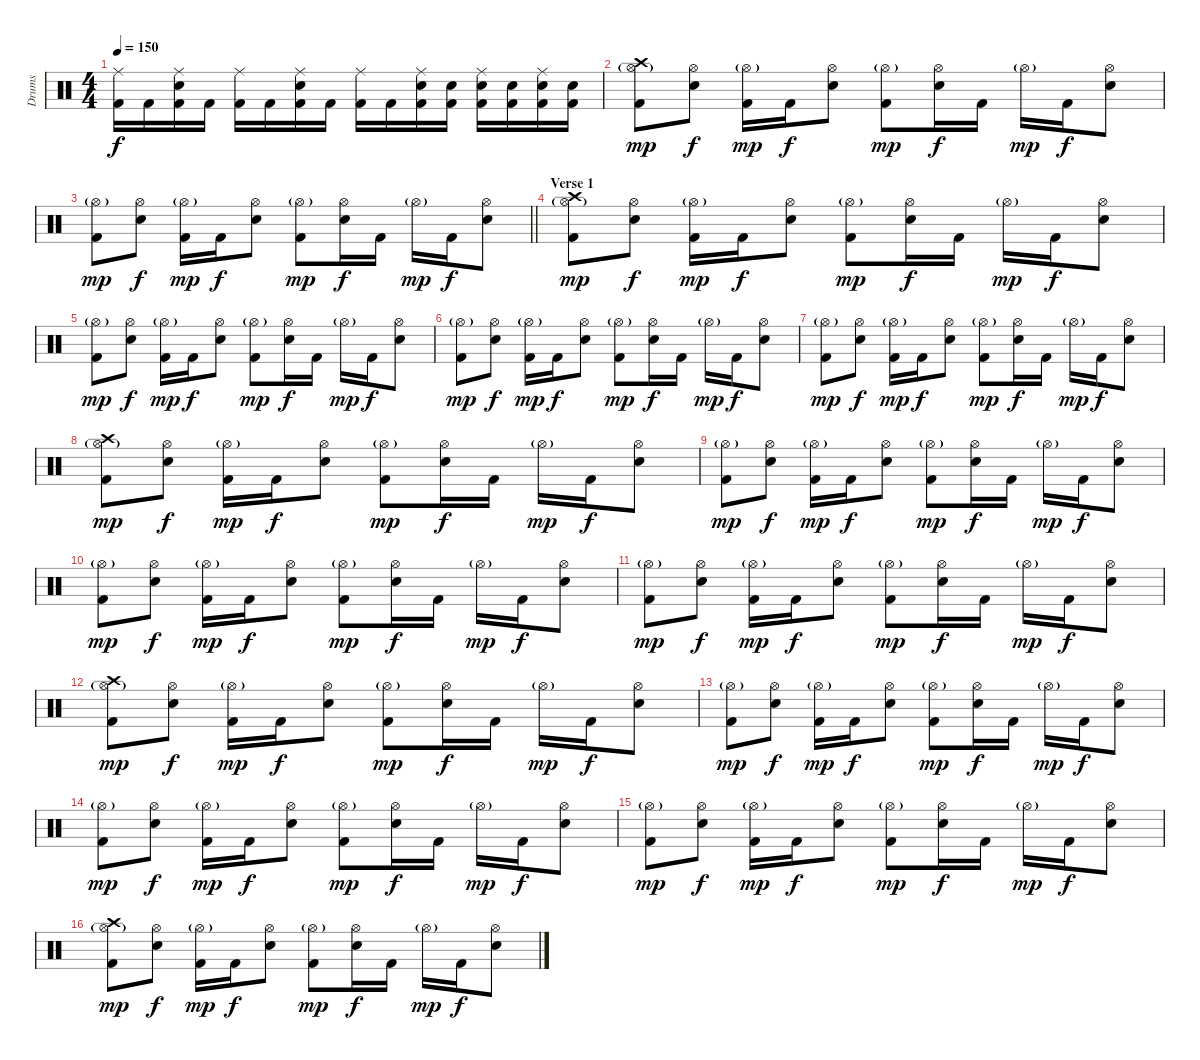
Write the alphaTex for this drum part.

\track ("Drums" "Drums") {instrument percussion}
\staff {score}
\articulation defaults
\ts (4 4)
\tempo 150
\clef neutral
\ks c
("Ride (middle)" "Kick (hit) 2").16{dy f} "Kick (hit) 2".16 ("Ride (middle)" "Snare (hit) 2" "Kick (hit) 2").16 "Kick (hit) 2".16 ("Ride (middle)" "Kick (hit) 2").16 "Kick (hit) 2".16 ("Ride (middle)" "Snare (hit) 2" "Kick (hit) 2").16 "Kick (hit) 2".16 ("Ride (middle)" "Kick (hit) 2").16 "Kick (hit) 2".16 ("Ride (middle)" "Snare (hit) 2" "Kick (hit) 2").16 ("Snare (hit) 2" "Kick (hit) 2").16 ("Ride (middle)" "Snare (hit) 2" "Kick (hit) 2").16 ("Snare (hit) 2" "Kick (hit) 2").16 ("Ride (middle)" "Snare (hit) 2" "Kick (hit) 2").16 ("Snare (hit) 2" "Kick (hit) 2").16 |
("Crash high (hit)" "Hi-Hat (open)"{g} "Kick (hit) 2").8{dy mp} ("Hi-Hat (open)" "Snare (hit) 2").8{dy f} ("Hi-Hat (open)"{g} "Kick (hit) 2").16{dy mp} "Kick (hit) 2".16{dy f} ("Hi-Hat (open)" "Snare (hit) 2").8 ("Hi-Hat (open)"{g} "Kick (hit) 2").8{dy mp} ("Hi-Hat (open)" "Snare (hit) 2").16{dy f} "Kick (hit) 2".16 "Hi-Hat (open)"{g}.16{dy mp} "Kick (hit) 2".16{dy f} ("Hi-Hat (open)" "Snare (hit) 2").8 |
\barLineRight lightlight
("Hi-Hat (open)"{g} "Kick (hit) 2").8{dy mp} ("Hi-Hat (open)" "Snare (hit) 2").8{dy f} ("Hi-Hat (open)"{g} "Kick (hit) 2").16{dy mp} "Kick (hit) 2".16{dy f} ("Hi-Hat (open)" "Snare (hit) 2").8 ("Hi-Hat (open)"{g} "Kick (hit) 2").8{dy mp} ("Hi-Hat (open)" "Snare (hit) 2").16{dy f} "Kick (hit) 2".16 "Hi-Hat (open)"{g}.16{dy mp} "Kick (hit) 2".16{dy f} ("Hi-Hat (open)" "Snare (hit) 2").8 |
\section ("" "Verse 1")
("Crash high (hit)" "Hi-Hat (open)"{g} "Kick (hit) 2").8{dy mp} ("Hi-Hat (open)" "Snare (hit) 2").8{dy f} ("Hi-Hat (open)"{g} "Kick (hit) 2").16{dy mp} "Kick (hit) 2".16{dy f} ("Hi-Hat (open)" "Snare (hit) 2").8 ("Hi-Hat (open)"{g} "Kick (hit) 2").8{dy mp} ("Hi-Hat (open)" "Snare (hit) 2").16{dy f} "Kick (hit) 2".16 "Hi-Hat (open)"{g}.16{dy mp} "Kick (hit) 2".16{dy f} ("Hi-Hat (open)" "Snare (hit) 2").8 |
("Hi-Hat (open)"{g} "Kick (hit) 2").8{dy mp} ("Hi-Hat (open)" "Snare (hit) 2").8{dy f} ("Hi-Hat (open)"{g} "Kick (hit) 2").16{dy mp} "Kick (hit) 2".16{dy f} ("Hi-Hat (open)" "Snare (hit) 2").8 ("Hi-Hat (open)"{g} "Kick (hit) 2").8{dy mp} ("Hi-Hat (open)" "Snare (hit) 2").16{dy f} "Kick (hit) 2".16 "Hi-Hat (open)"{g}.16{dy mp} "Kick (hit) 2".16{dy f} ("Hi-Hat (open)" "Snare (hit) 2").8 |
("Hi-Hat (open)"{g} "Kick (hit) 2").8{dy mp} ("Hi-Hat (open)" "Snare (hit) 2").8{dy f} ("Hi-Hat (open)"{g} "Kick (hit) 2").16{dy mp} "Kick (hit) 2".16{dy f} ("Hi-Hat (open)" "Snare (hit) 2").8 ("Hi-Hat (open)"{g} "Kick (hit) 2").8{dy mp} ("Hi-Hat (open)" "Snare (hit) 2").16{dy f} "Kick (hit) 2".16 "Hi-Hat (open)"{g}.16{dy mp} "Kick (hit) 2".16{dy f} ("Hi-Hat (open)" "Snare (hit) 2").8 |
("Hi-Hat (open)"{g} "Kick (hit) 2").8{dy mp} ("Hi-Hat (open)" "Snare (hit) 2").8{dy f} ("Hi-Hat (open)"{g} "Kick (hit) 2").16{dy mp} "Kick (hit) 2".16{dy f} ("Hi-Hat (open)" "Snare (hit) 2").8 ("Hi-Hat (open)"{g} "Kick (hit) 2").8{dy mp} ("Hi-Hat (open)" "Snare (hit) 2").16{dy f} "Kick (hit) 2".16 "Hi-Hat (open)"{g}.16{dy mp} "Kick (hit) 2".16{dy f} ("Hi-Hat (open)" "Snare (hit) 2").8 |
("Crash high (hit)" "Hi-Hat (open)"{g} "Kick (hit) 2").8{dy mp} ("Hi-Hat (open)" "Snare (hit) 2").8{dy f} ("Hi-Hat (open)"{g} "Kick (hit) 2").16{dy mp} "Kick (hit) 2".16{dy f} ("Hi-Hat (open)" "Snare (hit) 2").8 ("Hi-Hat (open)"{g} "Kick (hit) 2").8{dy mp} ("Hi-Hat (open)" "Snare (hit) 2").16{dy f} "Kick (hit) 2".16 "Hi-Hat (open)"{g}.16{dy mp} "Kick (hit) 2".16{dy f} ("Hi-Hat (open)" "Snare (hit) 2").8 |
("Hi-Hat (open)"{g} "Kick (hit) 2").8{dy mp} ("Hi-Hat (open)" "Snare (hit) 2").8{dy f} ("Hi-Hat (open)"{g} "Kick (hit) 2").16{dy mp} "Kick (hit) 2".16{dy f} ("Hi-Hat (open)" "Snare (hit) 2").8 ("Hi-Hat (open)"{g} "Kick (hit) 2").8{dy mp} ("Hi-Hat (open)" "Snare (hit) 2").16{dy f} "Kick (hit) 2".16 "Hi-Hat (open)"{g}.16{dy mp} "Kick (hit) 2".16{dy f} ("Hi-Hat (open)" "Snare (hit) 2").8 |
("Hi-Hat (open)"{g} "Kick (hit) 2").8{dy mp} ("Hi-Hat (open)" "Snare (hit) 2").8{dy f} ("Hi-Hat (open)"{g} "Kick (hit) 2").16{dy mp} "Kick (hit) 2".16{dy f} ("Hi-Hat (open)" "Snare (hit) 2").8 ("Hi-Hat (open)"{g} "Kick (hit) 2").8{dy mp} ("Hi-Hat (open)" "Snare (hit) 2").16{dy f} "Kick (hit) 2".16 "Hi-Hat (open)"{g}.16{dy mp} "Kick (hit) 2".16{dy f} ("Hi-Hat (open)" "Snare (hit) 2").8 |
("Hi-Hat (open)"{g} "Kick (hit) 2").8{dy mp} ("Hi-Hat (open)" "Snare (hit) 2").8{dy f} ("Hi-Hat (open)"{g} "Kick (hit) 2").16{dy mp} "Kick (hit) 2".16{dy f} ("Hi-Hat (open)" "Snare (hit) 2").8 ("Hi-Hat (open)"{g} "Kick (hit) 2").8{dy mp} ("Hi-Hat (open)" "Snare (hit) 2").16{dy f} "Kick (hit) 2".16 "Hi-Hat (open)"{g}.16{dy mp} "Kick (hit) 2".16{dy f} ("Hi-Hat (open)" "Snare (hit) 2").8 |
("Crash high (hit)" "Hi-Hat (open)"{g} "Kick (hit) 2").8{dy mp} ("Hi-Hat (open)" "Snare (hit) 2").8{dy f} ("Hi-Hat (open)"{g} "Kick (hit) 2").16{dy mp} "Kick (hit) 2".16{dy f} ("Hi-Hat (open)" "Snare (hit) 2").8 ("Hi-Hat (open)"{g} "Kick (hit) 2").8{dy mp} ("Hi-Hat (open)" "Snare (hit) 2").16{dy f} "Kick (hit) 2".16 "Hi-Hat (open)"{g}.16{dy mp} "Kick (hit) 2".16{dy f} ("Hi-Hat (open)" "Snare (hit) 2").8 |
("Hi-Hat (open)"{g} "Kick (hit) 2").8{dy mp} ("Hi-Hat (open)" "Snare (hit) 2").8{dy f} ("Hi-Hat (open)"{g} "Kick (hit) 2").16{dy mp} "Kick (hit) 2".16{dy f} ("Hi-Hat (open)" "Snare (hit) 2").8 ("Hi-Hat (open)"{g} "Kick (hit) 2").8{dy mp} ("Hi-Hat (open)" "Snare (hit) 2").16{dy f} "Kick (hit) 2".16 "Hi-Hat (open)"{g}.16{dy mp} "Kick (hit) 2".16{dy f} ("Hi-Hat (open)" "Snare (hit) 2").8 |
("Hi-Hat (open)"{g} "Kick (hit) 2").8{dy mp} ("Hi-Hat (open)" "Snare (hit) 2").8{dy f} ("Hi-Hat (open)"{g} "Kick (hit) 2").16{dy mp} "Kick (hit) 2".16{dy f} ("Hi-Hat (open)" "Snare (hit) 2").8 ("Hi-Hat (open)"{g} "Kick (hit) 2").8{dy mp} ("Hi-Hat (open)" "Snare (hit) 2").16{dy f} "Kick (hit) 2".16 "Hi-Hat (open)"{g}.16{dy mp} "Kick (hit) 2".16{dy f} ("Hi-Hat (open)" "Snare (hit) 2").8 |
("Hi-Hat (open)"{g} "Kick (hit) 2").8{dy mp} ("Hi-Hat (open)" "Snare (hit) 2").8{dy f} ("Hi-Hat (open)"{g} "Kick (hit) 2").16{dy mp} "Kick (hit) 2".16{dy f} ("Hi-Hat (open)" "Snare (hit) 2").8 ("Hi-Hat (open)"{g} "Kick (hit) 2").8{dy mp} ("Hi-Hat (open)" "Snare (hit) 2").16{dy f} "Kick (hit) 2".16 "Hi-Hat (open)"{g}.16{dy mp} "Kick (hit) 2".16{dy f} ("Hi-Hat (open)" "Snare (hit) 2").8 |
("Crash high (hit)" "Hi-Hat (open)"{g} "Kick (hit) 2").8{dy mp} ("Hi-Hat (open)" "Snare (hit) 2").8{dy f} ("Hi-Hat (open)"{g} "Kick (hit) 2").16{dy mp} "Kick (hit) 2".16{dy f} ("Hi-Hat (open)" "Snare (hit) 2").8 ("Hi-Hat (open)"{g} "Kick (hit) 2").8{dy mp} ("Hi-Hat (open)" "Snare (hit) 2").16{dy f} "Kick (hit) 2".16 "Hi-Hat (open)"{g}.16{dy mp} "Kick (hit) 2".16{dy f} ("Hi-Hat (open)" "Snare (hit) 2").8
